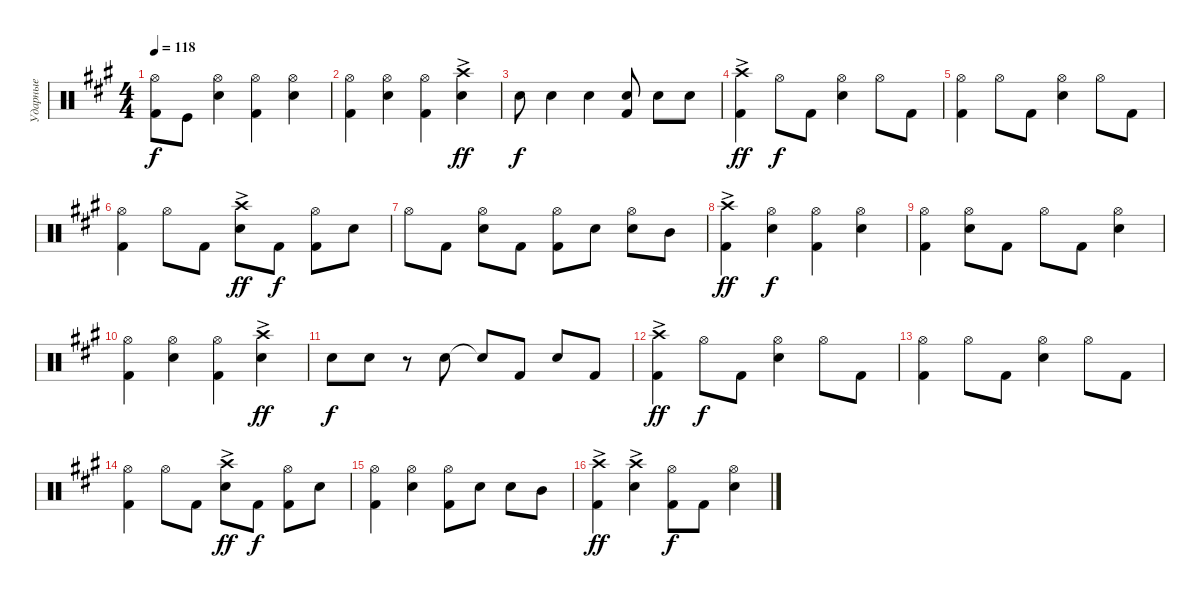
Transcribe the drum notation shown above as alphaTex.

\track ("Ударные" "Ударные") {instrument percussion}
\staff {score}
\articulation defaults
\ts (4 4)
\tempo 118
\clef neutral
\ks a
("Kick (hit) 2" "Hi-Hat (open)").8{dy f} "Kick (hit)".8 ("Snare (hit) 2" "Hi-Hat (open)").4 ("Kick (hit) 2" "Hi-Hat (open)").4 ("Snare (hit) 2" "Hi-Hat (open)").4 |
("Kick (hit) 2" "Hi-Hat (open)").4 ("Snare (hit) 2" "Hi-Hat (open)").4 ("Kick (hit) 2" "Hi-Hat (open)").4 ("Snare (hit) 2" "Crash high (hit)"{ac}).4{dy ff} |
"Snare (hit) 2".8{dy f} "Snare (hit) 2".4 "Snare (hit) 2".4 ("Kick (hit) 2" "Electric Snare (hit)").8 "Snare (hit) 2".8 "Snare (hit) 2".8 |
("Kick (hit) 2" "Crash high (hit)"{ac}).4{dy ff} "Hi-Hat (open)".8{dy f} "Kick (hit) 2".8 ("Snare (hit) 2" "Hi-Hat (open)").4 "Hi-Hat (open)".8 "Kick (hit) 2".8 |
("Kick (hit) 2" "Hi-Hat (open)").4 "Hi-Hat (open)".8 "Kick (hit) 2".8 ("Snare (hit) 2" "Hi-Hat (open)").4 "Hi-Hat (open)".8 "Kick (hit) 2".8 |
("Kick (hit) 2" "Hi-Hat (open)").4 "Hi-Hat (open)".8 "Kick (hit) 2".8 ("Snare (hit) 2" "Crash high (hit)"{ac}).8{dy ff} "Kick (hit) 2".8{dy f} ("Kick (hit) 2" "Hi-Hat (open)").8 "Snare (hit) 2".8 |
"Hi-Hat (open)".8 "Kick (hit) 2".8 ("Snare (hit) 2" "Hi-Hat (open)").8 "Kick (hit) 2".8 ("Kick (hit) 2" "Hi-Hat (open)").8 "Snare (hit) 2".8 ("Snare (hit) 2" "Hi-Hat (open)").8 "Mid Tom (hit)".8 |
("Kick (hit) 2" "Crash high (hit)"{ac}).4{dy ff} ("Snare (hit) 2" "Hi-Hat (open)").4{dy f} ("Kick (hit) 2" "Hi-Hat (open)").4 ("Snare (hit) 2" "Hi-Hat (open)").4 |
("Kick (hit) 2" "Hi-Hat (open)").4 ("Snare (hit) 2" "Hi-Hat (open)").8 "Kick (hit) 2".8 "Hi-Hat (open)".8 "Kick (hit) 2".8 ("Snare (hit) 2" "Hi-Hat (open)").4 |
("Kick (hit) 2" "Hi-Hat (open)").4 ("Snare (hit) 2" "Hi-Hat (open)").4 ("Kick (hit) 2" "Hi-Hat (open)").4 ("Snare (hit) 2" "Crash high (hit)"{ac}).4{dy ff} |
"Snare (hit) 2".8{dy f} "Snare (hit) 2".8 r.8 "Snare (hit) 2".8 "Snare (hit) 2"{t}.8 "Kick (hit) 2".8 "Snare (hit) 2".8 "Kick (hit) 2".8 |
("Kick (hit) 2" "Crash high (hit)"{ac}).4{dy ff} "Hi-Hat (open)".8{dy f} "Kick (hit) 2".8 ("Snare (hit) 2" "Hi-Hat (open)").4 "Hi-Hat (open)".8 "Kick (hit) 2".8 |
("Kick (hit) 2" "Hi-Hat (open)").4 "Hi-Hat (open)".8 "Kick (hit) 2".8 ("Snare (hit) 2" "Hi-Hat (open)").4 "Hi-Hat (open)".8 "Kick (hit) 2".8 |
("Kick (hit) 2" "Hi-Hat (open)").4 "Hi-Hat (open)".8 "Kick (hit) 2".8 ("Snare (hit) 2" "Crash high (hit)"{ac}).8{dy ff} "Kick (hit) 2".8{dy f} ("Kick (hit) 2" "Hi-Hat (open)").8 "Snare (hit) 2".8 |
("Kick (hit) 2" "Hi-Hat (open)").4 ("Snare (hit) 2" "Hi-Hat (open)").4 ("Kick (hit) 2" "Hi-Hat (open)").8 "Snare (hit) 2".8 "Snare (hit) 2".8 "Mid Tom (hit)".8 |
("Kick (hit) 2" "Crash high (hit)"{ac}).4{dy ff} ("Snare (hit) 2" "Crash high (hit)"{ac}).4 ("Kick (hit) 2" "Hi-Hat (open)").8{dy f} "Kick (hit) 2".8 ("Snare (hit) 2" "Hi-Hat (open)").4
